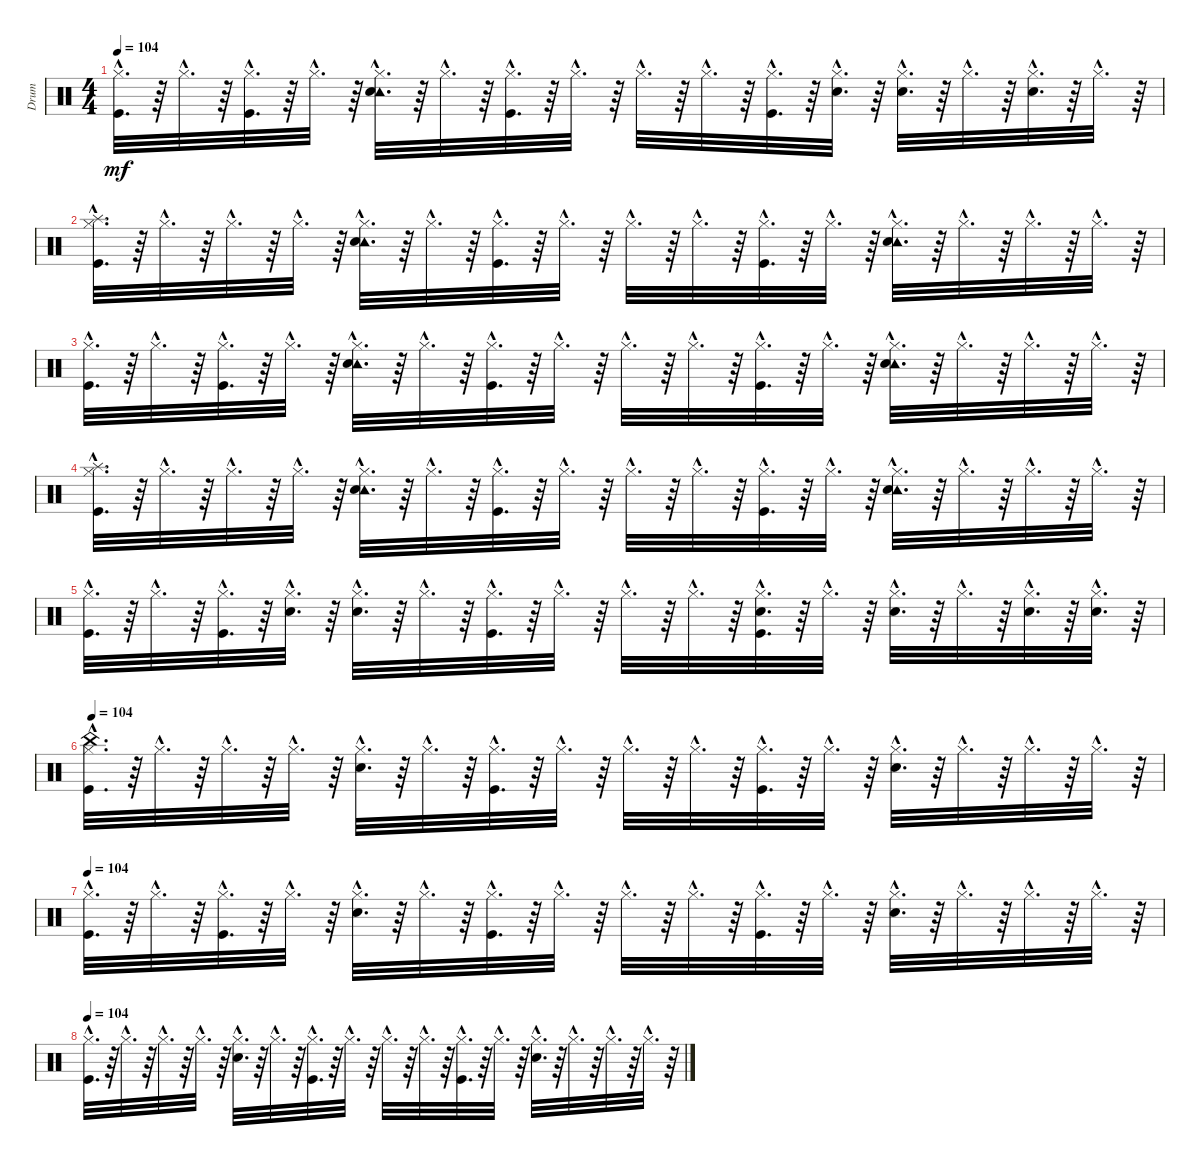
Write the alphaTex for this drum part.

\track ("Drum" "Drum") {instrument percussion}
\staff {score}
\articulation defaults
\ts (4 4)
\tempo 104
\clef neutral
\ks c
("Hi-Hat (closed)"{hac} "Kick (hit)"{hac}).32{d dy mf} r.64 "Hi-Hat (closed)"{hac}.32{d} r.64 ("Kick (hit)"{hac} "Hi-Hat (closed)"{hac}).32{d} r.64 "Hi-Hat (closed)"{hac}.32{d} r.64 ("Tambourine (hit)"{hac} "Hi-Hat (closed)"{hac} "Snare (hit) 2"{hac}).32{d} r.64 "Hi-Hat (closed)"{hac}.32{d} r.64 ("Hi-Hat (closed)"{hac} "Kick (hit)"{hac}).32{d} r.64 "Hi-Hat (closed)"{hac}.32{d} r.64 "Hi-Hat (closed)"{hac}.32{d} r.64 "Hi-Hat (closed)"{hac}.32{d} r.64 ("Hi-Hat (closed)"{hac} "Kick (hit)"{hac}).32{d} r.64 ("Snare (hit) 2"{hac} "Hi-Hat (closed)"{hac}).32{d} r.64 ("Hi-Hat (closed)"{hac} "Snare (hit) 2"{hac}).32{d} r.64 "Hi-Hat (closed)"{hac}.32{d} r.64 ("Electric Snare (hit)"{hac} "Hi-Hat (closed)"{hac}).32{d} r.64 "Hi-Hat (closed)"{hac}.32{d} r.64 |
("Kick (hit)"{hac} "Splash (hit)"{hac} "Hi-Hat (closed)"{hac}).32{d} r.64 "Hi-Hat (closed)"{hac}.32{d} r.64 "Hi-Hat (closed)"{hac}.32{d} r.64 "Hi-Hat (closed)"{hac}.32{d} r.64 ("Tambourine (hit)"{hac} "Snare (hit) 2"{hac} "Hi-Hat (closed)"{hac}).32{d} r.64 "Hi-Hat (closed)"{hac}.32{d} r.64 ("Kick (hit)"{hac} "Hi-Hat (closed)"{hac}).32{d} r.64 "Hi-Hat (closed)"{hac}.32{d} r.64 "Hi-Hat (closed)"{hac}.32{d} r.64 "Hi-Hat (closed)"{hac}.32{d} r.64 ("Kick (hit)"{hac} "Hi-Hat (closed)"{hac}).32{d} r.64 "Hi-Hat (closed)"{hac}.32{d} r.64 ("Tambourine (hit)"{hac} "Snare (hit) 2"{hac} "Hi-Hat (closed)"{hac}).32{d} r.64 "Hi-Hat (closed)"{hac}.32{d} r.64 "Hi-Hat (closed)"{hac}.32{d} r.64 "Hi-Hat (closed)"{hac}.32{d} r.64 |
("Hi-Hat (closed)"{hac} "Kick (hit)"{hac}).32{d} r.64 "Hi-Hat (closed)"{hac}.32{d} r.64 ("Kick (hit)"{hac} "Hi-Hat (closed)"{hac}).32{d} r.64 "Hi-Hat (closed)"{hac}.32{d} r.64 ("Tambourine (hit)"{hac} "Hi-Hat (closed)"{hac} "Snare (hit) 2"{hac}).32{d} r.64 "Hi-Hat (closed)"{hac}.32{d} r.64 ("Hi-Hat (closed)"{hac} "Kick (hit)"{hac}).32{d} r.64 "Hi-Hat (closed)"{hac}.32{d} r.64 "Hi-Hat (closed)"{hac}.32{d} r.64 "Hi-Hat (closed)"{hac}.32{d} r.64 ("Hi-Hat (closed)"{hac} "Kick (hit)"{hac}).32{d} r.64 "Hi-Hat (closed)"{hac}.32{d} r.64 ("Tambourine (hit)"{hac} "Hi-Hat (closed)"{hac} "Snare (hit) 2"{hac}).32{d} r.64 "Hi-Hat (closed)"{hac}.32{d} r.64 "Hi-Hat (closed)"{hac}.32{d} r.64 "Hi-Hat (closed)"{hac}.32{d} r.64 |
("Hi-Hat (closed)"{hac} "Kick (hit)"{hac} "Splash (hit)"{hac}).32{d} r.64 "Hi-Hat (closed)"{hac}.32{d} r.64 "Hi-Hat (closed)"{hac}.32{d} r.64 "Hi-Hat (closed)"{hac}.32{d} r.64 ("Tambourine (hit)"{hac} "Hi-Hat (closed)"{hac} "Snare (hit) 2"{hac}).32{d} r.64 "Hi-Hat (closed)"{hac}.32{d} r.64 ("Hi-Hat (closed)"{hac} "Kick (hit)"{hac}).32{d} r.64 "Hi-Hat (closed)"{hac}.32{d} r.64 "Hi-Hat (closed)"{hac}.32{d} r.64 "Hi-Hat (closed)"{hac}.32{d} r.64 ("Hi-Hat (closed)"{hac} "Kick (hit)"{hac}).32{d} r.64 "Hi-Hat (closed)"{hac}.32{d} r.64 ("Tambourine (hit)"{hac} "Hi-Hat (closed)"{hac} "Snare (hit) 2"{hac}).32{d} r.64 "Hi-Hat (closed)"{hac}.32{d} r.64 "Hi-Hat (closed)"{hac}.32{d} r.64 "Hi-Hat (closed)"{hac}.32{d} r.64 |
("Kick (hit)"{hac} "Hi-Hat (closed)"{hac}).32{d} r.64 "Hi-Hat (closed)"{hac}.32{d} r.64 ("Hi-Hat (closed)"{hac} "Kick (hit)"{hac}).32{d} r.64 ("Snare (hit) 2"{hac} "Hi-Hat (closed)"{hac}).32{d} r.64 ("Snare (hit) 2"{hac} "Hi-Hat (closed)"{hac}).32{d} r.64 "Hi-Hat (closed)"{hac}.32{d} r.64 ("Kick (hit)"{hac} "Hi-Hat (closed)"{hac}).32{d} r.64 "Hi-Hat (closed)"{hac}.32{d} r.64 "Hi-Hat (closed)"{hac}.32{d} r.64 "Hi-Hat (closed)"{hac}.32{d} r.64 ("Snare (hit) 2"{hac} "Kick (hit)"{hac} "Hi-Hat (closed)"{hac}).32{d} r.64 "Hi-Hat (closed)"{hac}.32{d} r.64 ("Snare (hit) 2"{hac} "Hi-Hat (closed)"{hac}).32{d} r.64 "Hi-Hat (closed)"{hac}.32{d} r.64 ("Snare (hit) 2"{hac} "Hi-Hat (closed)"{hac}).32{d} r.64 ("Snare (hit) 2"{hac} "Hi-Hat (closed)"{hac}).32{d} r.64 |
\tempo 104
("Hi-Hat (closed)"{hac} "China (hit)"{hac} "Kick (hit)"{hac}).32{d} r.64 "Hi-Hat (closed)"{hac}.32{d} r.64 "Hi-Hat (closed)"{hac}.32{d} r.64 "Hi-Hat (closed)"{hac}.32{d} r.64 ("Hi-Hat (closed)"{hac} "Snare (hit) 2"{hac}).32{d} r.64 "Hi-Hat (closed)"{hac}.32{d} r.64 ("Hi-Hat (closed)"{hac} "Kick (hit)"{hac}).32{d} r.64 "Hi-Hat (closed)"{hac}.32{d} r.64 "Hi-Hat (closed)"{hac}.32{d} r.64 "Hi-Hat (closed)"{hac}.32{d} r.64 ("Hi-Hat (closed)"{hac} "Kick (hit)"{hac}).32{d} r.64 "Hi-Hat (closed)"{hac}.32{d} r.64 ("Hi-Hat (closed)"{hac} "Snare (hit) 2"{hac}).32{d} r.64 "Hi-Hat (closed)"{hac}.32{d} r.64 "Hi-Hat (closed)"{hac}.32{d} r.64 "Hi-Hat (closed)"{hac}.32{d} r.64 |
\tempo 104
("Kick (hit)"{hac} "Hi-Hat (closed)"{hac}).32{d} r.64 "Hi-Hat (closed)"{hac}.32{d} r.64 ("Hi-Hat (closed)"{hac} "Kick (hit)"{hac}).32{d} r.64 "Hi-Hat (closed)"{hac}.32{d} r.64 ("Snare (hit) 2"{hac} "Hi-Hat (closed)"{hac}).32{d} r.64 "Hi-Hat (closed)"{hac}.32{d} r.64 ("Kick (hit)"{hac} "Hi-Hat (closed)"{hac}).32{d} r.64 "Hi-Hat (closed)"{hac}.32{d} r.64 "Hi-Hat (closed)"{hac}.32{d} r.64 "Hi-Hat (closed)"{hac}.32{d} r.64 ("Kick (hit)"{hac} "Hi-Hat (closed)"{hac}).32{d} r.64 "Hi-Hat (closed)"{hac}.32{d} r.64 ("Snare (hit) 2"{hac} "Hi-Hat (closed)"{hac}).32{d} r.64 "Hi-Hat (closed)"{hac}.32{d} r.64 "Hi-Hat (closed)"{hac}.32{d} r.64 "Hi-Hat (closed)"{hac}.32{d} r.64 |
\tempo 104
("Kick (hit)"{hac} "Hi-Hat (closed)"{hac}).32{d} r.64 "Hi-Hat (closed)"{hac}.32{d} r.64 "Hi-Hat (closed)"{hac}.32{d} r.64 "Hi-Hat (closed)"{hac}.32{d} r.64 ("Snare (hit) 2"{hac} "Hi-Hat (closed)"{hac}).32{d} r.64 "Hi-Hat (closed)"{hac}.32{d} r.64 ("Kick (hit)"{hac} "Hi-Hat (closed)"{hac}).32{d} r.64 "Hi-Hat (closed)"{hac}.32{d} r.64 "Hi-Hat (closed)"{hac}.32{d} r.64 "Hi-Hat (closed)"{hac}.32{d} r.64 ("Kick (hit)"{hac} "Hi-Hat (closed)"{hac}).32{d} r.64 "Hi-Hat (closed)"{hac}.32{d} r.64 ("Snare (hit) 2"{hac} "Hi-Hat (closed)"{hac}).32{d} r.64 "Hi-Hat (closed)"{hac}.32{d} r.64 "Hi-Hat (closed)"{hac}.32{d} r.64 "Hi-Hat (closed)"{hac}.32{d} r.64
